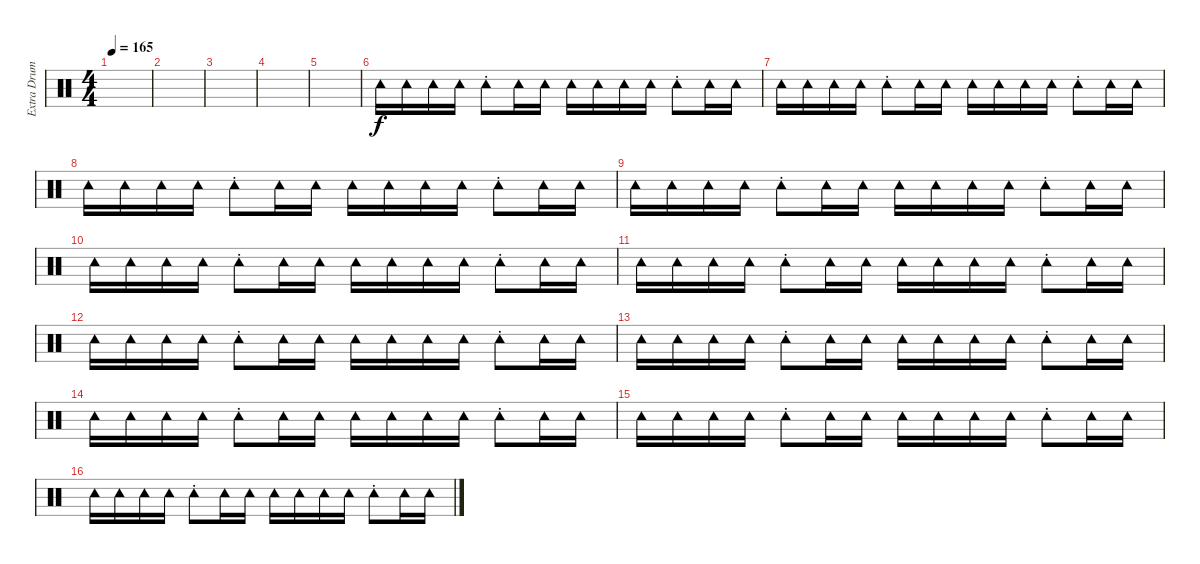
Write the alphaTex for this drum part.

\track ("Extra Drum : Tainaka Risu - Chan" "Extra Drum") {instrument percussion}
\staff {score}
\articulation defaults
\ts (4 4)
\tempo 165
\clef neutral
\ks c
|
|
|
|
|
"Tambourine (hit)".16 "Tambourine (hit)".16 "Tambourine (hit)".16 "Tambourine (hit)".16 "Tambourine (hit)"{st}.8 "Tambourine (hit)".16 "Tambourine (hit)".16 "Tambourine (hit)".16 "Tambourine (hit)".16 "Tambourine (hit)".16 "Tambourine (hit)".16 "Tambourine (hit)"{st}.8 "Tambourine (hit)".16 "Tambourine (hit)".16 |
"Tambourine (hit)".16 "Tambourine (hit)".16 "Tambourine (hit)".16 "Tambourine (hit)".16 "Tambourine (hit)"{st}.8 "Tambourine (hit)".16 "Tambourine (hit)".16 "Tambourine (hit)".16 "Tambourine (hit)".16 "Tambourine (hit)".16 "Tambourine (hit)".16 "Tambourine (hit)"{st}.8 "Tambourine (hit)".16 "Tambourine (hit)".16 |
"Tambourine (hit)".16 "Tambourine (hit)".16 "Tambourine (hit)".16 "Tambourine (hit)".16 "Tambourine (hit)"{st}.8 "Tambourine (hit)".16 "Tambourine (hit)".16 "Tambourine (hit)".16 "Tambourine (hit)".16 "Tambourine (hit)".16 "Tambourine (hit)".16 "Tambourine (hit)"{st}.8 "Tambourine (hit)".16 "Tambourine (hit)".16 |
"Tambourine (hit)".16 "Tambourine (hit)".16 "Tambourine (hit)".16 "Tambourine (hit)".16 "Tambourine (hit)"{st}.8 "Tambourine (hit)".16 "Tambourine (hit)".16 "Tambourine (hit)".16 "Tambourine (hit)".16 "Tambourine (hit)".16 "Tambourine (hit)".16 "Tambourine (hit)"{st}.8 "Tambourine (hit)".16 "Tambourine (hit)".16 |
"Tambourine (hit)".16 "Tambourine (hit)".16 "Tambourine (hit)".16 "Tambourine (hit)".16 "Tambourine (hit)"{st}.8 "Tambourine (hit)".16 "Tambourine (hit)".16 "Tambourine (hit)".16 "Tambourine (hit)".16 "Tambourine (hit)".16 "Tambourine (hit)".16 "Tambourine (hit)"{st}.8 "Tambourine (hit)".16 "Tambourine (hit)".16 |
"Tambourine (hit)".16 "Tambourine (hit)".16 "Tambourine (hit)".16 "Tambourine (hit)".16 "Tambourine (hit)"{st}.8 "Tambourine (hit)".16 "Tambourine (hit)".16 "Tambourine (hit)".16 "Tambourine (hit)".16 "Tambourine (hit)".16 "Tambourine (hit)".16 "Tambourine (hit)"{st}.8 "Tambourine (hit)".16 "Tambourine (hit)".16 |
"Tambourine (hit)".16 "Tambourine (hit)".16 "Tambourine (hit)".16 "Tambourine (hit)".16 "Tambourine (hit)"{st}.8 "Tambourine (hit)".16 "Tambourine (hit)".16 "Tambourine (hit)".16 "Tambourine (hit)".16 "Tambourine (hit)".16 "Tambourine (hit)".16 "Tambourine (hit)"{st}.8 "Tambourine (hit)".16 "Tambourine (hit)".16 |
"Tambourine (hit)".16 "Tambourine (hit)".16 "Tambourine (hit)".16 "Tambourine (hit)".16 "Tambourine (hit)"{st}.8 "Tambourine (hit)".16 "Tambourine (hit)".16 "Tambourine (hit)".16 "Tambourine (hit)".16 "Tambourine (hit)".16 "Tambourine (hit)".16 "Tambourine (hit)"{st}.8 "Tambourine (hit)".16 "Tambourine (hit)".16 |
"Tambourine (hit)".16 "Tambourine (hit)".16 "Tambourine (hit)".16 "Tambourine (hit)".16 "Tambourine (hit)"{st}.8 "Tambourine (hit)".16 "Tambourine (hit)".16 "Tambourine (hit)".16 "Tambourine (hit)".16 "Tambourine (hit)".16 "Tambourine (hit)".16 "Tambourine (hit)"{st}.8 "Tambourine (hit)".16 "Tambourine (hit)".16 |
"Tambourine (hit)".16 "Tambourine (hit)".16 "Tambourine (hit)".16 "Tambourine (hit)".16 "Tambourine (hit)"{st}.8 "Tambourine (hit)".16 "Tambourine (hit)".16 "Tambourine (hit)".16 "Tambourine (hit)".16 "Tambourine (hit)".16 "Tambourine (hit)".16 "Tambourine (hit)"{st}.8 "Tambourine (hit)".16 "Tambourine (hit)".16 |
"Tambourine (hit)".16 "Tambourine (hit)".16 "Tambourine (hit)".16 "Tambourine (hit)".16 "Tambourine (hit)"{st}.8 "Tambourine (hit)".16 "Tambourine (hit)".16 "Tambourine (hit)".16 "Tambourine (hit)".16 "Tambourine (hit)".16 "Tambourine (hit)".16 "Tambourine (hit)"{st}.8 "Tambourine (hit)".16 "Tambourine (hit)".16
